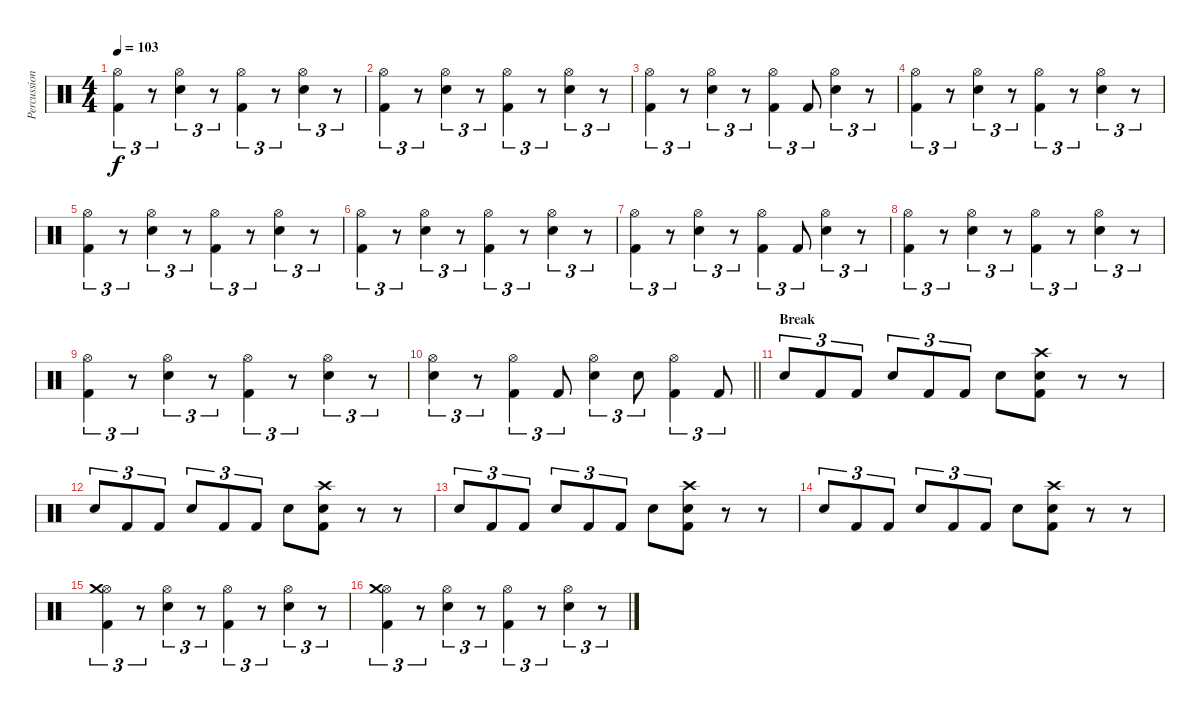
\track ("Percussion" "Percussion") {instrument percussion}
\staff {score}
\articulation defaults
\ts (4 4)
\tempo 103
\clef neutral
\ks c
("Hi-Hat (open)" "Kick (hit) 2").4{tu (3 2) dy f} r.8{tu (3 2)} ("Hi-Hat (open)" "Electric Snare (hit)").4{tu (3 2)} r.8{tu (3 2)} ("Hi-Hat (open)" "Kick (hit) 2").4{tu (3 2)} r.8{tu (3 2)} ("Hi-Hat (open)" "Electric Snare (hit)").4{tu (3 2)} r.8{tu (3 2)} |
("Hi-Hat (open)" "Kick (hit) 2").4{tu (3 2)} r.8{tu (3 2)} ("Hi-Hat (open)" "Electric Snare (hit)").4{tu (3 2)} r.8{tu (3 2)} ("Hi-Hat (open)" "Kick (hit) 2").4{tu (3 2)} r.8{tu (3 2)} ("Hi-Hat (open)" "Electric Snare (hit)").4{tu (3 2)} r.8{tu (3 2)} |
("Hi-Hat (open)" "Kick (hit) 2").4{tu (3 2)} r.8{tu (3 2)} ("Hi-Hat (open)" "Electric Snare (hit)").4{tu (3 2)} r.8{tu (3 2)} ("Hi-Hat (open)" "Kick (hit) 2").4{tu (3 2)} "Kick (hit) 2".8{tu (3 2)} ("Hi-Hat (open)" "Electric Snare (hit)").4{tu (3 2)} r.8{tu (3 2)} |
("Hi-Hat (open)" "Kick (hit) 2").4{tu (3 2)} r.8{tu (3 2)} ("Hi-Hat (open)" "Electric Snare (hit)").4{tu (3 2)} r.8{tu (3 2)} ("Hi-Hat (open)" "Kick (hit) 2").4{tu (3 2)} r.8{tu (3 2)} ("Hi-Hat (open)" "Electric Snare (hit)").4{tu (3 2)} r.8{tu (3 2)} |
("Hi-Hat (open)" "Kick (hit) 2").4{tu (3 2)} r.8{tu (3 2)} ("Hi-Hat (open)" "Electric Snare (hit)").4{tu (3 2)} r.8{tu (3 2)} ("Hi-Hat (open)" "Kick (hit) 2").4{tu (3 2)} r.8{tu (3 2)} ("Hi-Hat (open)" "Electric Snare (hit)").4{tu (3 2)} r.8{tu (3 2)} |
("Hi-Hat (open)" "Kick (hit) 2").4{tu (3 2)} r.8{tu (3 2)} ("Hi-Hat (open)" "Electric Snare (hit)").4{tu (3 2)} r.8{tu (3 2)} ("Hi-Hat (open)" "Kick (hit) 2").4{tu (3 2)} r.8{tu (3 2)} ("Hi-Hat (open)" "Electric Snare (hit)").4{tu (3 2)} r.8{tu (3 2)} |
("Hi-Hat (open)" "Kick (hit) 2").4{tu (3 2)} r.8{tu (3 2)} ("Hi-Hat (open)" "Electric Snare (hit)").4{tu (3 2)} r.8{tu (3 2)} ("Hi-Hat (open)" "Kick (hit) 2").4{tu (3 2)} "Kick (hit) 2".8{tu (3 2)} ("Hi-Hat (open)" "Electric Snare (hit)").4{tu (3 2)} r.8{tu (3 2)} |
("Hi-Hat (open)" "Kick (hit) 2").4{tu (3 2)} r.8{tu (3 2)} ("Hi-Hat (open)" "Electric Snare (hit)").4{tu (3 2)} r.8{tu (3 2)} ("Hi-Hat (open)" "Kick (hit) 2").4{tu (3 2)} r.8{tu (3 2)} ("Hi-Hat (open)" "Electric Snare (hit)").4{tu (3 2)} r.8{tu (3 2)} |
("Hi-Hat (open)" "Kick (hit) 2").4{tu (3 2)} r.8{tu (3 2)} ("Hi-Hat (open)" "Electric Snare (hit)").4{tu (3 2)} r.8{tu (3 2)} ("Hi-Hat (open)" "Kick (hit) 2").4{tu (3 2)} r.8{tu (3 2)} ("Hi-Hat (open)" "Electric Snare (hit)").4{tu (3 2)} r.8{tu (3 2)} |
\barLineRight lightlight
("Hi-Hat (open)" "Electric Snare (hit)").4{tu (3 2)} r.8{tu (3 2)} ("Hi-Hat (open)" "Kick (hit) 2").4{tu (3 2)} "Kick (hit) 2".8{tu (3 2)} ("Hi-Hat (open)" "Electric Snare (hit)").4{tu (3 2)} "Electric Snare (hit)".8{tu (3 2)} ("Hi-Hat (open)" "Kick (hit) 2").4{tu (3 2)} "Kick (hit) 2".8{tu (3 2)} |
\section ("" "Break")
"Snare (hit) 2".8{tu (3 2)} "Kick (hit) 2".8{tu (3 2)} "Kick (hit) 2".8{tu (3 2)} "Snare (hit) 2".8{tu (3 2)} "Kick (hit) 2".8{tu (3 2)} "Kick (hit) 2".8{tu (3 2)} "Snare (hit) 2".8 ("Crash high (hit)" "Snare (hit) 2" "Kick (hit) 2").8 r.8 r.8 |
"Snare (hit) 2".8{tu (3 2)} "Kick (hit) 2".8{tu (3 2)} "Kick (hit) 2".8{tu (3 2)} "Snare (hit) 2".8{tu (3 2)} "Kick (hit) 2".8{tu (3 2)} "Kick (hit) 2".8{tu (3 2)} "Snare (hit) 2".8 ("Crash high (hit)" "Snare (hit) 2" "Kick (hit) 2").8 r.8 r.8 |
"Snare (hit) 2".8{tu (3 2)} "Kick (hit) 2".8{tu (3 2)} "Kick (hit) 2".8{tu (3 2)} "Snare (hit) 2".8{tu (3 2)} "Kick (hit) 2".8{tu (3 2)} "Kick (hit) 2".8{tu (3 2)} "Snare (hit) 2".8 ("Crash high (hit)" "Snare (hit) 2" "Kick (hit) 2").8 r.8 r.8 |
"Snare (hit) 2".8{tu (3 2)} "Kick (hit) 2".8{tu (3 2)} "Kick (hit) 2".8{tu (3 2)} "Snare (hit) 2".8{tu (3 2)} "Kick (hit) 2".8{tu (3 2)} "Kick (hit) 2".8{tu (3 2)} "Snare (hit) 2".8 ("Crash high (hit)" "Snare (hit) 2" "Kick (hit) 2").8 r.8 r.8 |
("Kick (hit) 2" "Hi-Hat (open)" "Crash medium (hit)").4{tu (3 2)} r.8{tu (3 2)} ("Electric Snare (hit)" "Hi-Hat (open)").4{tu (3 2)} r.8{tu (3 2)} ("Kick (hit) 2" "Hi-Hat (open)").4{tu (3 2)} r.8{tu (3 2)} ("Electric Snare (hit)" "Hi-Hat (open)").4{tu (3 2)} r.8{tu (3 2)} |
("Kick (hit) 2" "Hi-Hat (open)" "Crash medium (hit)").4{tu (3 2)} r.8{tu (3 2)} ("Electric Snare (hit)" "Hi-Hat (open)").4{tu (3 2)} r.8{tu (3 2)} ("Kick (hit) 2" "Hi-Hat (open)").4{tu (3 2)} r.8{tu (3 2)} ("Electric Snare (hit)" "Hi-Hat (open)").4{tu (3 2)} r.8{tu (3 2)}
